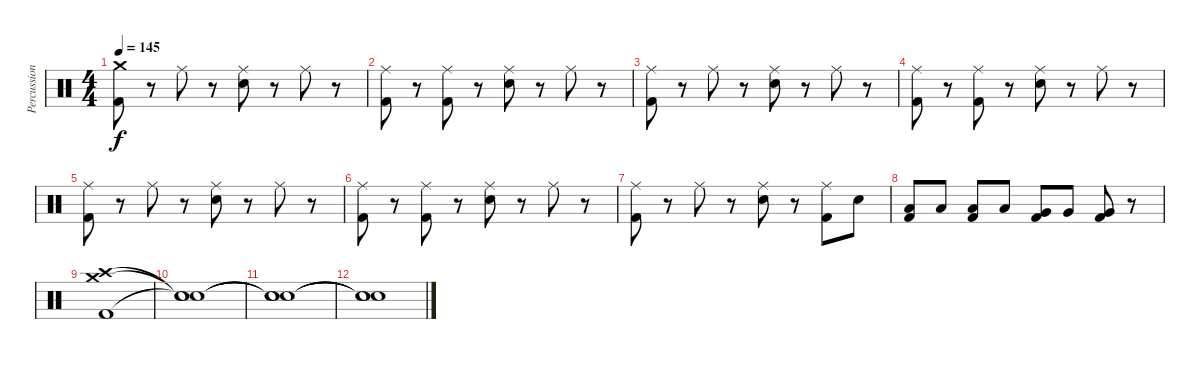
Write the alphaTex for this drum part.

\track ("Percussion" "Percussion") {instrument percussion}
\staff {score}
\articulation defaults
\ts (4 4)
\tempo 145
\clef neutral
\ks c
("Crash medium (hit)" "Kick (hit) 2").8{dy f} r.8 "Ride (middle)".8 r.8 ("Ride (middle)" "Electric Snare (hit)").8 r.8 "Ride (middle)".8 r.8 |
("Ride (middle)" "Kick (hit) 2").8 r.8 ("Ride (middle)" "Kick (hit) 2").8 r.8 ("Ride (middle)" "Electric Snare (hit)").8 r.8 "Ride (middle)".8 r.8 |
("Ride (middle)" "Kick (hit) 2").8 r.8 "Ride (middle)".8 r.8 ("Ride (middle)" "Electric Snare (hit)").8 r.8 "Ride (middle)".8 r.8 |
("Ride (middle)" "Kick (hit) 2").8 r.8 ("Ride (middle)" "Kick (hit) 2").8 r.8 ("Ride (middle)" "Electric Snare (hit)").8 r.8 "Ride (middle)".8 r.8 |
("Ride (middle)" "Kick (hit) 2").8 r.8 "Ride (middle)".8 r.8 ("Ride (middle)" "Electric Snare (hit)").8 r.8 "Ride (middle)".8 r.8 |
("Ride (middle)" "Kick (hit) 2").8 r.8 ("Ride (middle)" "Kick (hit) 2").8 r.8 ("Ride (middle)" "Electric Snare (hit)").8 r.8 "Ride (middle)".8 r.8 |
("Ride (middle)" "Kick (hit) 2").8 r.8 "Ride (middle)".8 r.8 ("Ride (middle)" "Electric Snare (hit)").8 r.8 ("Ride (middle)" "Kick (hit) 2").8 "Electric Snare (hit)".8 |
("Low Tom (hit)" "Kick (hit) 2").8 "Low Tom (hit)".8 ("Low Tom (hit)" "Kick (hit) 2").8 "Low Tom (hit)".8 ("Very Low Tom (hit)" "Kick (hit) 2").8 "Very Low Tom (hit)".8 ("Very Low Tom (hit)" "Kick (hit) 2").8 r.8 |
("Crash medium (hit)" "Crash high (hit)" "Kick (hit) 2").1 |
("Snare (hit)"{t} "Snare (hit)"{t} "Snare (hit)"{t}).1 |
("Snare (hit)"{t} "Snare (hit)"{t} "Snare (hit)"{t}).1 |
("Snare (hit)"{t} "Snare (hit)"{t} "Snare (hit)"{t}).1
